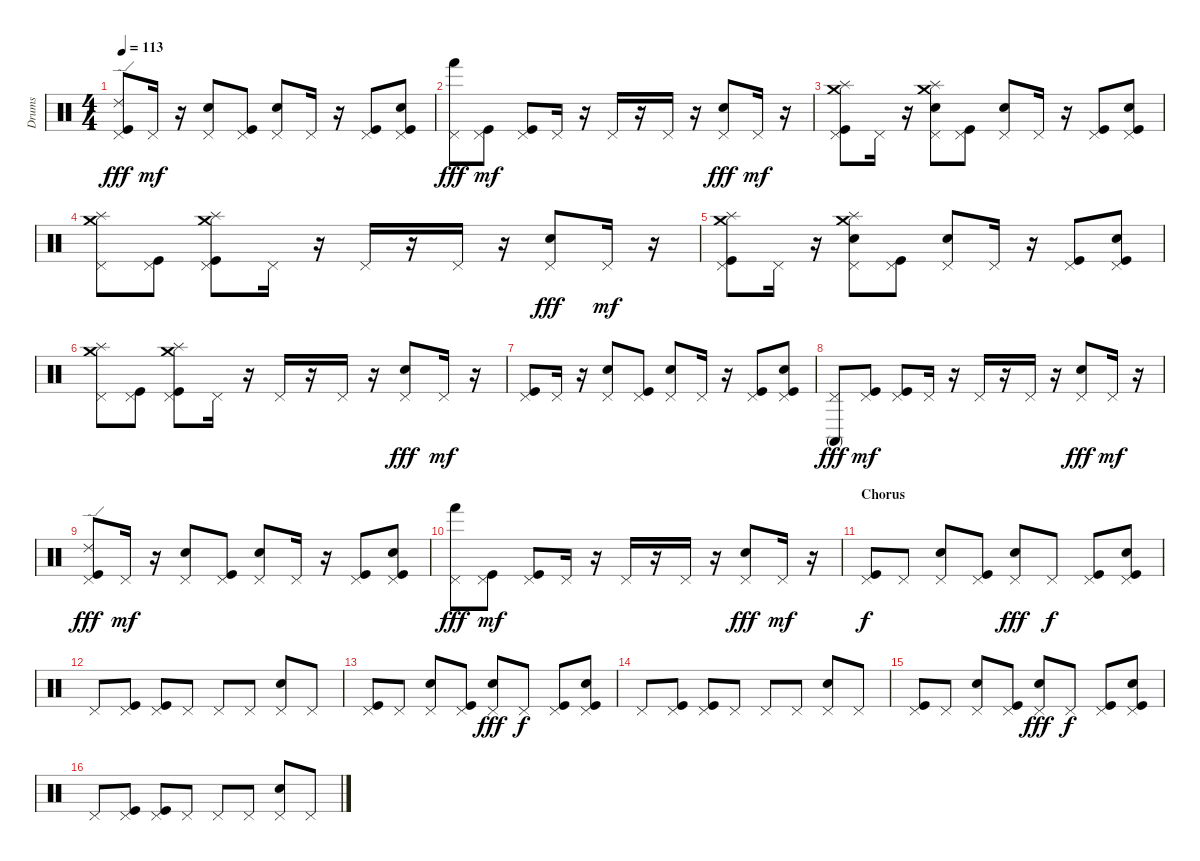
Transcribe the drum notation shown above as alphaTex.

\track ("Drums" "Drums") {instrument percussion}
\staff {score}
\articulation defaults
\ts (4 4)
\tempo 113
\clef neutral
\ks c
("Kick (hit)" "Pedal Hi-Hat (hit)" "Ride (edge) 2").8{dy fff} "Pedal Hi-Hat (hit)".16{dy mf} r.16 ("Electric Snare (hit)" "Pedal Hi-Hat (hit)").8 ("Kick (hit)" "Pedal Hi-Hat (hit)").8 ("Snare (hit) 2" "Pedal Hi-Hat (hit)").8 "Pedal Hi-Hat (hit)".16 r.16 ("Kick (hit)" "Pedal Hi-Hat (hit)").8 ("Electric Snare (hit)" "Kick (hit)" "Pedal Hi-Hat (hit)").8 |
("Pedal Hi-Hat (hit)" "Hand (hit)").8{dy fff} ("Kick (hit)" "Pedal Hi-Hat (hit)").8{dy mf} ("Kick (hit)" "Pedal Hi-Hat (hit)").8 "Pedal Hi-Hat (hit)".16 r.16 "Pedal Hi-Hat (hit)".16 r.16 "Pedal Hi-Hat (hit)".16 r.16 ("Pedal Hi-Hat (hit)" "Snare (hit) 2").8{dy fff} "Pedal Hi-Hat (hit)".16{dy mf} r.16 |
("Splash (hit)" "Crash medium (hit)" "Kick (hit)" "Pedal Hi-Hat (hit)").8 "Pedal Hi-Hat (hit)".16 r.16 ("Splash (hit)" "Crash medium (hit)" "Electric Snare (hit)" "Pedal Hi-Hat (hit)").8 ("Kick (hit)" "Pedal Hi-Hat (hit)").8 ("Snare (hit) 2" "Pedal Hi-Hat (hit)").8 "Pedal Hi-Hat (hit)".16 r.16 ("Kick (hit)" "Pedal Hi-Hat (hit)").8 ("Electric Snare (hit)" "Kick (hit)" "Pedal Hi-Hat (hit)").8 |
("Splash (hit)" "Crash medium (hit)" "Pedal Hi-Hat (hit)").8 ("Kick (hit)" "Pedal Hi-Hat (hit)").8 ("Splash (hit)" "Crash medium (hit)" "Kick (hit)" "Pedal Hi-Hat (hit)").8 "Pedal Hi-Hat (hit)".16 r.16 "Pedal Hi-Hat (hit)".16 r.16 "Pedal Hi-Hat (hit)".16 r.16 ("Pedal Hi-Hat (hit)" "Snare (hit) 2").8{dy fff} "Pedal Hi-Hat (hit)".16{dy mf} r.16 |
("Splash (hit)" "Crash medium (hit)" "Kick (hit)" "Pedal Hi-Hat (hit)").8 "Pedal Hi-Hat (hit)".16 r.16 ("Splash (hit)" "Crash medium (hit)" "Electric Snare (hit)" "Pedal Hi-Hat (hit)").8 ("Kick (hit)" "Pedal Hi-Hat (hit)").8 ("Snare (hit) 2" "Pedal Hi-Hat (hit)").8 "Pedal Hi-Hat (hit)".16 r.16 ("Kick (hit)" "Pedal Hi-Hat (hit)").8 ("Electric Snare (hit)" "Kick (hit)" "Pedal Hi-Hat (hit)").8 |
("Splash (hit)" "Crash medium (hit)" "Pedal Hi-Hat (hit)").8 ("Kick (hit)" "Pedal Hi-Hat (hit)").8 ("Splash (hit)" "Crash medium (hit)" "Kick (hit)" "Pedal Hi-Hat (hit)").8 "Pedal Hi-Hat (hit)".16 r.16 "Pedal Hi-Hat (hit)".16 r.16 "Pedal Hi-Hat (hit)".16 r.16 ("Pedal Hi-Hat (hit)" "Snare (hit) 2").8{dy fff} "Pedal Hi-Hat (hit)".16{dy mf} r.16 |
("Kick (hit)" "Pedal Hi-Hat (hit)").8 "Pedal Hi-Hat (hit)".16 r.16 ("Electric Snare (hit)" "Pedal Hi-Hat (hit)").8 ("Kick (hit)" "Pedal Hi-Hat (hit)").8 ("Snare (hit) 2" "Pedal Hi-Hat (hit)").8 "Pedal Hi-Hat (hit)".16 r.16 ("Kick (hit)" "Pedal Hi-Hat (hit)").8 ("Electric Snare (hit)" "Kick (hit)" "Pedal Hi-Hat (hit)").8 |
("Pedal Hi-Hat (hit)" "Conga high (mute)").8{dy fff} ("Kick (hit)" "Pedal Hi-Hat (hit)").8{dy mf} ("Kick (hit)" "Pedal Hi-Hat (hit)").8 "Pedal Hi-Hat (hit)".16 r.16 "Pedal Hi-Hat (hit)".16 r.16 "Pedal Hi-Hat (hit)".16 r.16 ("Pedal Hi-Hat (hit)" "Snare (hit) 2").8{dy fff} "Pedal Hi-Hat (hit)".16{dy mf} r.16 |
("Kick (hit)" "Pedal Hi-Hat (hit)" "Ride (edge) 2").8{dy fff} "Pedal Hi-Hat (hit)".16{dy mf} r.16 ("Electric Snare (hit)" "Pedal Hi-Hat (hit)").8 ("Kick (hit)" "Pedal Hi-Hat (hit)").8 ("Snare (hit) 2" "Pedal Hi-Hat (hit)").8 "Pedal Hi-Hat (hit)".16 r.16 ("Kick (hit)" "Pedal Hi-Hat (hit)").8 ("Electric Snare (hit)" "Kick (hit)" "Pedal Hi-Hat (hit)").8 |
("Pedal Hi-Hat (hit)" "Hand (hit)").8{dy fff} ("Kick (hit)" "Pedal Hi-Hat (hit)").8{dy mf} ("Kick (hit)" "Pedal Hi-Hat (hit)").8 "Pedal Hi-Hat (hit)".16 r.16 "Pedal Hi-Hat (hit)".16 r.16 "Pedal Hi-Hat (hit)".16 r.16 ("Pedal Hi-Hat (hit)" "Snare (hit) 2").8{dy fff} "Pedal Hi-Hat (hit)".16{dy mf} r.16 |
\section ("" "Chorus")
("Pedal Hi-Hat (hit)" "Kick (hit)").8{dy f} "Pedal Hi-Hat (hit)".8 ("Pedal Hi-Hat (hit)" "Electric Snare (hit)").8 ("Pedal Hi-Hat (hit)" "Kick (hit)").8 ("Pedal Hi-Hat (hit)" "Snare (hit) 2").8{dy fff} "Pedal Hi-Hat (hit)".8{dy f} ("Pedal Hi-Hat (hit)" "Kick (hit)").8 ("Pedal Hi-Hat (hit)" "Electric Snare (hit)" "Kick (hit)").8 |
"Pedal Hi-Hat (hit)".8 ("Pedal Hi-Hat (hit)" "Kick (hit)").8 ("Pedal Hi-Hat (hit)" "Kick (hit)").8 "Pedal Hi-Hat (hit)".8 "Pedal Hi-Hat (hit)".8 "Pedal Hi-Hat (hit)".8 ("Pedal Hi-Hat (hit)" "Snare (hit) 2").8 "Pedal Hi-Hat (hit)".8 |
("Pedal Hi-Hat (hit)" "Kick (hit)").8 "Pedal Hi-Hat (hit)".8 ("Pedal Hi-Hat (hit)" "Electric Snare (hit)").8 ("Pedal Hi-Hat (hit)" "Kick (hit)").8 ("Pedal Hi-Hat (hit)" "Snare (hit) 2").8{dy fff} "Pedal Hi-Hat (hit)".8{dy f} ("Pedal Hi-Hat (hit)" "Kick (hit)").8 ("Pedal Hi-Hat (hit)" "Electric Snare (hit)" "Kick (hit)").8 |
"Pedal Hi-Hat (hit)".8 ("Pedal Hi-Hat (hit)" "Kick (hit)").8 ("Pedal Hi-Hat (hit)" "Kick (hit)").8 "Pedal Hi-Hat (hit)".8 "Pedal Hi-Hat (hit)".8 "Pedal Hi-Hat (hit)".8 ("Pedal Hi-Hat (hit)" "Snare (hit) 2").8 "Pedal Hi-Hat (hit)".8 |
("Pedal Hi-Hat (hit)" "Kick (hit)").8 "Pedal Hi-Hat (hit)".8 ("Pedal Hi-Hat (hit)" "Electric Snare (hit)").8 ("Pedal Hi-Hat (hit)" "Kick (hit)").8 ("Pedal Hi-Hat (hit)" "Snare (hit) 2").8{dy fff} "Pedal Hi-Hat (hit)".8{dy f} ("Pedal Hi-Hat (hit)" "Kick (hit)").8 ("Pedal Hi-Hat (hit)" "Electric Snare (hit)" "Kick (hit)").8 |
"Pedal Hi-Hat (hit)".8 ("Pedal Hi-Hat (hit)" "Kick (hit)").8 ("Pedal Hi-Hat (hit)" "Kick (hit)").8 "Pedal Hi-Hat (hit)".8 "Pedal Hi-Hat (hit)".8 "Pedal Hi-Hat (hit)".8 ("Pedal Hi-Hat (hit)" "Snare (hit) 2").8 "Pedal Hi-Hat (hit)".8
